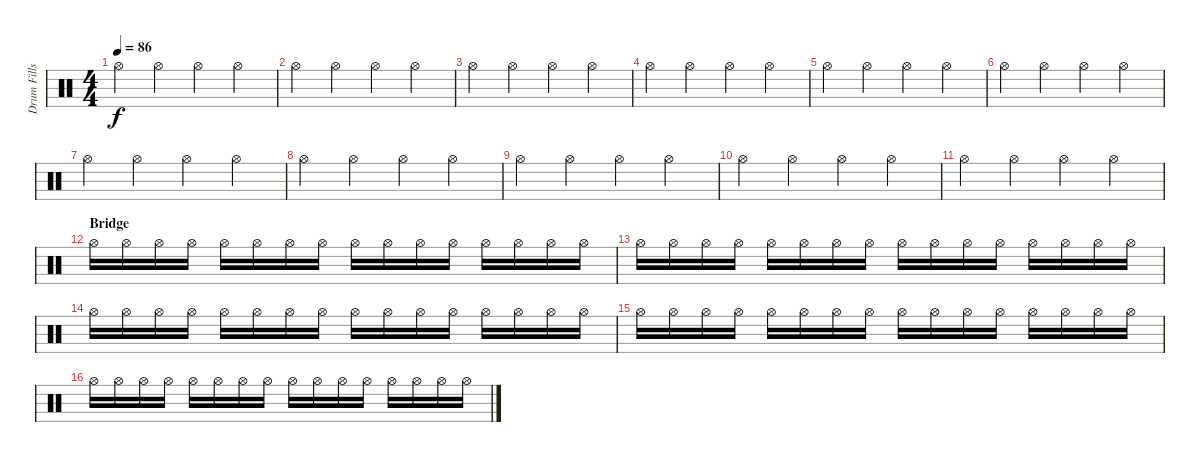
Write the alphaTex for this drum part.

\track ("Drum Fills" "Drum Fills") {instrument percussion}
\staff {score}
\articulation defaults
\ts (4 4)
\tempo 86
\clef neutral
\ks c "Hi-Hat (open)".4{dy f} "Hi-Hat (open)".4 "Hi-Hat (open)".4 "Hi-Hat (open)".4
|
"Hi-Hat (open)".4 "Hi-Hat (open)".4 "Hi-Hat (open)".4 "Hi-Hat (open)".4 |
"Hi-Hat (open)".4 "Hi-Hat (open)".4 "Hi-Hat (open)".4 "Hi-Hat (open)".4 |
"Hi-Hat (open)".4 "Hi-Hat (open)".4 "Hi-Hat (open)".4 "Hi-Hat (open)".4 |
"Hi-Hat (open)".4 "Hi-Hat (open)".4 "Hi-Hat (open)".4 "Hi-Hat (open)".4 |
"Hi-Hat (open)".4 "Hi-Hat (open)".4 "Hi-Hat (open)".4 "Hi-Hat (open)".4 |
"Hi-Hat (open)".4 "Hi-Hat (open)".4 "Hi-Hat (open)".4 "Hi-Hat (open)".4 |
"Hi-Hat (open)".4 "Hi-Hat (open)".4 "Hi-Hat (open)".4 "Hi-Hat (open)".4 |
"Hi-Hat (open)".4 "Hi-Hat (open)".4 "Hi-Hat (open)".4 "Hi-Hat (open)".4 |
"Hi-Hat (open)".4 "Hi-Hat (open)".4 "Hi-Hat (open)".4 "Hi-Hat (open)".4 |
"Hi-Hat (open)".4 "Hi-Hat (open)".4 "Hi-Hat (open)".4 "Hi-Hat (open)".4 |
\section ("" "Bridge")
"Hi-Hat (open)".16 "Hi-Hat (open)".16 "Hi-Hat (open)".16 "Hi-Hat (open)".16 "Hi-Hat (open)".16 "Hi-Hat (open)".16 "Hi-Hat (open)".16 "Hi-Hat (open)".16 "Hi-Hat (open)".16 "Hi-Hat (open)".16 "Hi-Hat (open)".16 "Hi-Hat (open)".16 "Hi-Hat (open)".16 "Hi-Hat (open)".16 "Hi-Hat (open)".16 "Hi-Hat (open)".16 |
"Hi-Hat (open)".16 "Hi-Hat (open)".16 "Hi-Hat (open)".16 "Hi-Hat (open)".16 "Hi-Hat (open)".16 "Hi-Hat (open)".16 "Hi-Hat (open)".16 "Hi-Hat (open)".16 "Hi-Hat (open)".16 "Hi-Hat (open)".16 "Hi-Hat (open)".16 "Hi-Hat (open)".16 "Hi-Hat (open)".16 "Hi-Hat (open)".16 "Hi-Hat (open)".16 "Hi-Hat (open)".16 |
"Hi-Hat (open)".16 "Hi-Hat (open)".16 "Hi-Hat (open)".16 "Hi-Hat (open)".16 "Hi-Hat (open)".16 "Hi-Hat (open)".16 "Hi-Hat (open)".16 "Hi-Hat (open)".16 "Hi-Hat (open)".16 "Hi-Hat (open)".16 "Hi-Hat (open)".16 "Hi-Hat (open)".16 "Hi-Hat (open)".16 "Hi-Hat (open)".16 "Hi-Hat (open)".16 "Hi-Hat (open)".16 |
"Hi-Hat (open)".16 "Hi-Hat (open)".16 "Hi-Hat (open)".16 "Hi-Hat (open)".16 "Hi-Hat (open)".16 "Hi-Hat (open)".16 "Hi-Hat (open)".16 "Hi-Hat (open)".16 "Hi-Hat (open)".16 "Hi-Hat (open)".16 "Hi-Hat (open)".16 "Hi-Hat (open)".16 "Hi-Hat (open)".16 "Hi-Hat (open)".16 "Hi-Hat (open)".16 "Hi-Hat (open)".16 |
"Hi-Hat (open)".16 "Hi-Hat (open)".16 "Hi-Hat (open)".16 "Hi-Hat (open)".16 "Hi-Hat (open)".16 "Hi-Hat (open)".16 "Hi-Hat (open)".16 "Hi-Hat (open)".16 "Hi-Hat (open)".16 "Hi-Hat (open)".16 "Hi-Hat (open)".16 "Hi-Hat (open)".16 "Hi-Hat (open)".16 "Hi-Hat (open)".16 "Hi-Hat (open)".16 "Hi-Hat (open)".16
